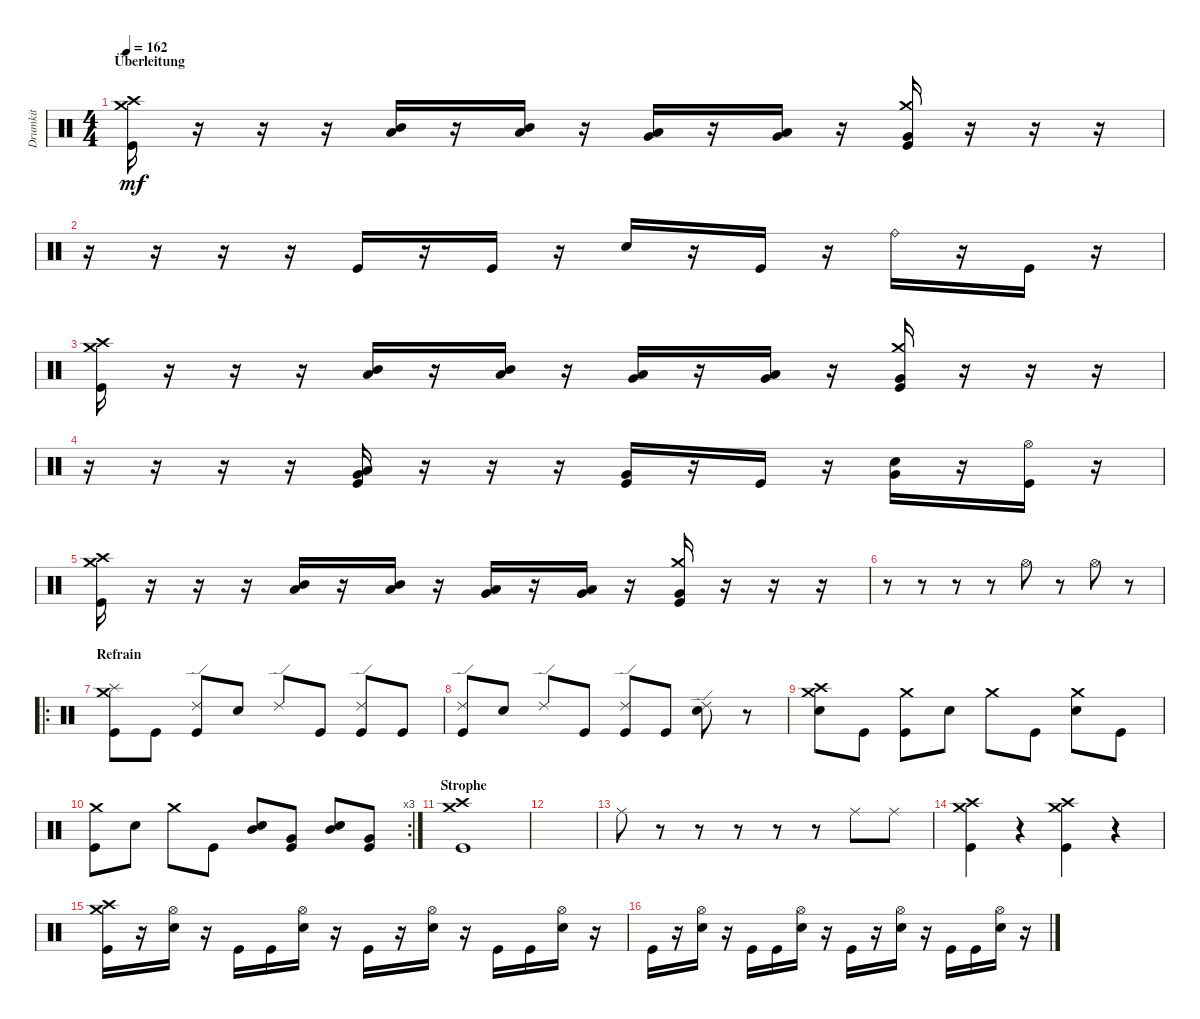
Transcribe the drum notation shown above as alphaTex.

\track ("Drumkit" "Drumkit") {instrument percussion}
\staff {score}
\articulation defaults
\ts (4 4)
\section ("" "Überleitung")
\tempo 162
\clef neutral
\ks c
("Kick (hit)" "Crash high (hit)" "Crash medium (hit)").16{dy mf} r.16 r.16 r.16 ("Mid Tom (hit)" "Low Tom (hit)").16 r.16 ("Mid Tom (hit)" "Low Tom (hit)").16 r.16 ("Very Low Tom (hit)" "Low Tom (hit)").16 r.16 ("Very Low Tom (hit)" "Low Tom (hit)").16 r.16 ("Kick (hit)" "Crash medium (hit)" "Very Low Tom (hit)").16 r.16 r.16 r.16 |
r.16 r.16 r.16 r.16 "Kick (hit)".16 r.16 "Kick (hit)".16 r.16 "Snare (hit) 2".16 r.16 "Kick (hit)".16 r.16 "Ride (bell)".16 r.16 "Kick (hit)".16 r.16 |
("Kick (hit)" "Crash high (hit)" "Crash medium (hit)").16 r.16 r.16 r.16 ("Mid Tom (hit)" "Low Tom (hit)").16 r.16 ("Mid Tom (hit)" "Low Tom (hit)").16 r.16 ("Very Low Tom (hit)" "Low Tom (hit)").16 r.16 ("Very Low Tom (hit)" "Low Tom (hit)").16 r.16 ("Kick (hit)" "Crash medium (hit)" "Very Low Tom (hit)").16 r.16 r.16 r.16 |
r.16 r.16 r.16 r.16 ("Kick (hit)" "Very Low Tom (hit)" "Low Tom (hit)").16 r.16 r.16 r.16 ("Kick (hit)" "Very Low Tom (hit)").16 r.16 "Kick (hit)".16 r.16 ("Snare (hit) 2" "Very Low Tom (hit)").16 r.16 ("Kick (hit)" "Hi-Hat (open)").16 r.16 |
("Kick (hit)" "Crash high (hit)" "Crash medium (hit)").16 r.16 r.16 r.16 ("Mid Tom (hit)" "Low Tom (hit)").16 r.16 ("Mid Tom (hit)" "Low Tom (hit)").16 r.16 ("Very Low Tom (hit)" "Low Tom (hit)").16 r.16 ("Very Low Tom (hit)" "Low Tom (hit)").16 r.16 ("Kick (hit)" "Crash medium (hit)" "Very Low Tom (hit)").16 r.16 r.16 r.16 |
r.8 r.8 r.8 r.8 "Hi-Hat (open)".8 r.8 "Hi-Hat (open)".8 r.8 |
\ro
\section ("" "Refrain")
("Kick (hit)" "Crash medium (hit)" "Splash (hit)").8 "Kick (hit)".8 ("Kick (hit)" "Ride (edge) 2").8 "Snare (hit) 2".8 "Ride (edge) 2".8 "Kick (hit)".8 ("Kick (hit)" "Ride (edge) 2").8 "Kick (hit)".8 |
("Kick (hit)" "Ride (edge) 2").8 "Snare (hit) 2".8 "Ride (edge) 2".8 "Kick (hit)".8 ("Kick (hit)" "Ride (edge) 2").8 "Kick (hit)".8 ("Snare (hit) 2" "Ride (edge) 2").8 r.8 |
("Snare (hit) 2" "Crash medium (hit)" "Crash high (hit)").8 "Kick (hit)".8 ("Kick (hit)" "Crash medium (hit)").8 "Snare (hit) 2".8 "Crash medium (hit)".8 "Kick (hit)".8 ("Snare (hit) 2" "Crash medium (hit)").8 "Kick (hit)".8 |
\rc 3
("Kick (hit)" "Crash medium (hit)").8 "Snare (hit) 2".8 "Crash medium (hit)".8 "Kick (hit)".8 ("Snare (hit) 2" "Mid Tom (hit)").8 ("Kick (hit)" "Very Low Tom (hit)").8 ("Snare (hit) 2" "Mid Tom (hit)").8 ("Kick (hit)" "Very Low Tom (hit)").8 |
\section ("" "Strophe")
("Kick (hit)" "Crash high (hit)" "Crash medium (hit)").1 |
|
"Ride (middle)".8 r.8 r.8 r.8 r.8 r.8 "Ride (middle)".8 "Ride (middle)".8 |
("Kick (hit)" "Crash high (hit)" "Crash medium (hit)").4 r.4 ("Kick (hit)" "Crash high (hit)" "Crash medium (hit)").4 r.4 |
("Kick (hit)" "Crash medium (hit)" "Crash high (hit)").16 r.16 ("Snare (hit) 2" "Hi-Hat (open)").16 r.16 "Kick (hit)".16 "Kick (hit)".16 ("Snare (hit) 2" "Hi-Hat (open)").16 r.16 "Kick (hit)".16 r.16 ("Snare (hit) 2" "Hi-Hat (open)").16 r.16 "Kick (hit)".16 "Kick (hit)".16 ("Snare (hit) 2" "Hi-Hat (open)").16 r.16 |
"Kick (hit)".16 r.16 ("Snare (hit) 2" "Hi-Hat (open)").16 r.16 "Kick (hit)".16 "Kick (hit)".16 ("Snare (hit) 2" "Hi-Hat (open)").16 r.16 "Kick (hit)".16 r.16 ("Snare (hit) 2" "Hi-Hat (open)").16 r.16 "Kick (hit)".16 "Kick (hit)".16 ("Snare (hit) 2" "Hi-Hat (open)").16 r.16
